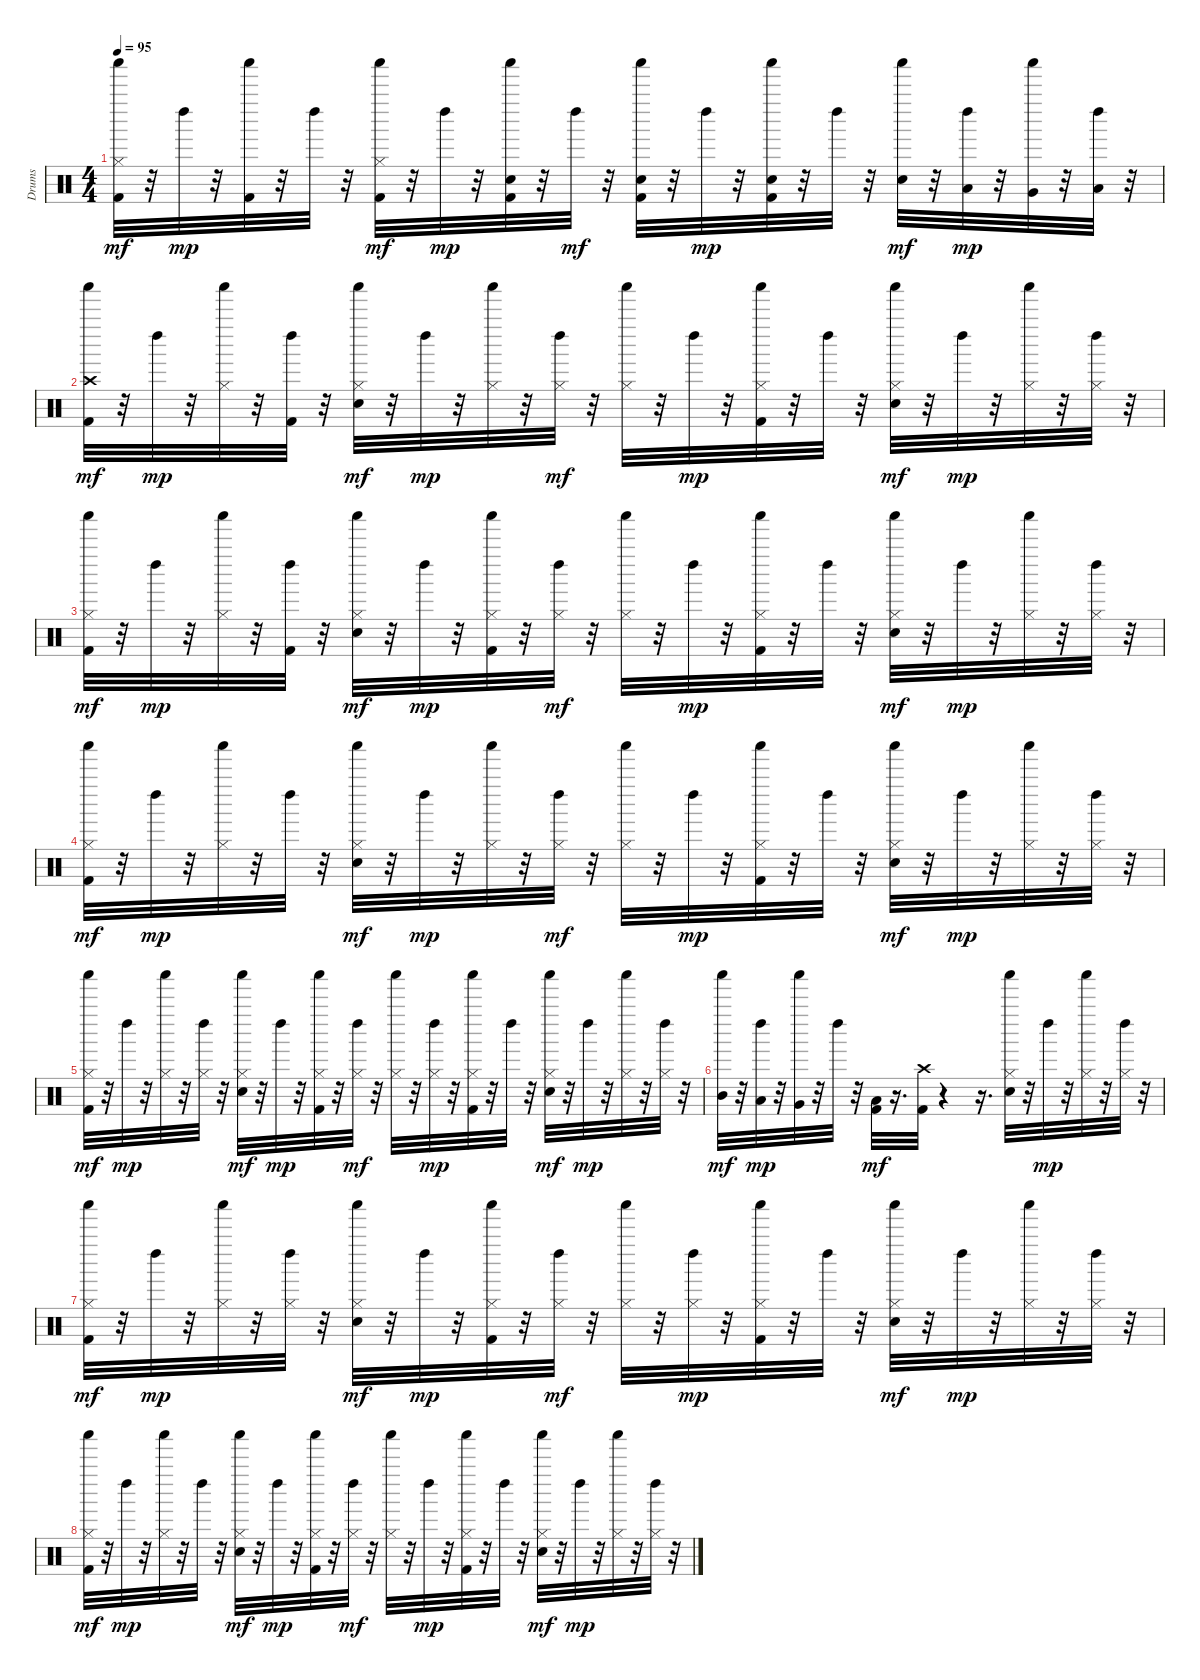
\track ("Drums" "Drums") {instrument percussion}
\staff {score}
\articulation defaults
\ts (4 4)
\tempo 95
\clef neutral
\ks c
("Kick (hit) 2" "Hi-Hat (closed)" "Shaker (hit)").32{dy mf} r.32 "Left Maraca (hit)".32{dy mp} r.32 ("Kick (hit) 2" "Shaker (hit)").32 r.32 "Left Maraca (hit)".32 r.32 ("Kick (hit) 2" "Hi-Hat (closed)" "Shaker (hit)").32{dy mf} r.32 "Left Maraca (hit)".32{dy mp} r.32 ("Kick (hit) 2" "Electric Snare (hit)" "Shaker (hit)").32 r.32 "Left Maraca (hit)".32{dy mf} r.32 ("Kick (hit) 2" "Electric Snare (hit)" "Shaker (hit)").32 r.32 "Left Maraca (hit)".32{dy mp} r.32 ("Kick (hit) 2" "Electric Snare (hit)" "Shaker (hit)").32 r.32 "Left Maraca (hit)".32 r.32 ("Electric Snare (hit)" "Shaker (hit)").32{dy mf} r.32 ("Low Tom (hit)" "Left Maraca (hit)").32{dy mp} r.32 ("Very Low Tom (hit)" "Shaker (hit)").32 r.32 ("Low Floor Tom (hit)" "Left Maraca (hit)").32 r.32 |
("Kick (hit) 2" "Crash high (hit)" "Shaker (hit)").32{dy mf} r.32 "Left Maraca (hit)".32{dy mp} r.32 ("Hi-Hat (closed)" "Shaker (hit)").32 r.32 ("Kick (hit) 2" "Left Maraca (hit)").32 r.32 ("Electric Snare (hit)" "Hi-Hat (closed)" "Shaker (hit)").32{dy mf} r.32 "Left Maraca (hit)".32{dy mp} r.32 ("Hi-Hat (closed)" "Shaker (hit)").32 r.32 ("Hi-Hat (closed)" "Left Maraca (hit)").32{dy mf} r.32 ("Hi-Hat (closed)" "Shaker (hit)").32 r.32 "Left Maraca (hit)".32{dy mp} r.32 ("Kick (hit) 2" "Hi-Hat (closed)" "Shaker (hit)").32 r.32 "Left Maraca (hit)".32 r.32 ("Electric Snare (hit)" "Hi-Hat (closed)" "Shaker (hit)").32{dy mf} r.32 "Left Maraca (hit)".32{dy mp} r.32 ("Hi-Hat (closed)" "Shaker (hit)").32 r.32 ("Hi-Hat (closed)" "Left Maraca (hit)").32 r.32 |
("Kick (hit) 2" "Hi-Hat (closed)" "Shaker (hit)").32{dy mf} r.32 "Left Maraca (hit)".32{dy mp} r.32 ("Hi-Hat (closed)" "Shaker (hit)").32 r.32 ("Kick (hit) 2" "Left Maraca (hit)").32 r.32 ("Electric Snare (hit)" "Hi-Hat (closed)" "Shaker (hit)").32{dy mf} r.32 "Left Maraca (hit)".32{dy mp} r.32 ("Kick (hit) 2" "Hi-Hat (closed)" "Shaker (hit)").32 r.32 ("Hi-Hat (closed)" "Left Maraca (hit)").32{dy mf} r.32 ("Hi-Hat (closed)" "Shaker (hit)").32 r.32 "Left Maraca (hit)".32{dy mp} r.32 ("Kick (hit) 2" "Hi-Hat (closed)" "Shaker (hit)").32 r.32 "Left Maraca (hit)".32 r.32 ("Electric Snare (hit)" "Hi-Hat (closed)" "Shaker (hit)").32{dy mf} r.32 "Left Maraca (hit)".32{dy mp} r.32 ("Hi-Hat (closed)" "Shaker (hit)").32 r.32 ("Hi-Hat (closed)" "Left Maraca (hit)").32 r.32 |
("Kick (hit) 2" "Hi-Hat (closed)" "Shaker (hit)").32{dy mf} r.32 "Left Maraca (hit)".32{dy mp} r.32 ("Hi-Hat (closed)" "Shaker (hit)").32 r.32 "Left Maraca (hit)".32 r.32 ("Electric Snare (hit)" "Hi-Hat (closed)" "Shaker (hit)").32{dy mf} r.32 "Left Maraca (hit)".32{dy mp} r.32 ("Hi-Hat (closed)" "Shaker (hit)").32 r.32 ("Hi-Hat (closed)" "Left Maraca (hit)").32{dy mf} r.32 ("Hi-Hat (closed)" "Shaker (hit)").32 r.32 "Left Maraca (hit)".32{dy mp} r.32 ("Kick (hit) 2" "Hi-Hat (closed)" "Shaker (hit)").32 r.32 "Left Maraca (hit)".32 r.32 ("Electric Snare (hit)" "Hi-Hat (closed)" "Shaker (hit)").32{dy mf} r.32 "Left Maraca (hit)".32{dy mp} r.32 ("Hi-Hat (closed)" "Shaker (hit)").32 r.32 ("Hi-Hat (closed)" "Left Maraca (hit)").32 r.32 |
("Kick (hit) 2" "Hi-Hat (closed)" "Shaker (hit)").32{dy mf} r.32 "Left Maraca (hit)".32{dy mp} r.32 ("Hi-Hat (closed)" "Shaker (hit)").32 r.32 ("Hi-Hat (closed)" "Left Maraca (hit)").32 r.32 ("Electric Snare (hit)" "Hi-Hat (closed)" "Shaker (hit)").32{dy mf} r.32 "Left Maraca (hit)".32{dy mp} r.32 ("Kick (hit) 2" "Hi-Hat (closed)" "Shaker (hit)").32 r.32 ("Hi-Hat (closed)" "Left Maraca (hit)").32{dy mf} r.32 ("Hi-Hat (closed)" "Shaker (hit)").32 r.32 ("Hi-Hat (closed)" "Left Maraca (hit)").32{dy mp} r.32 ("Kick (hit) 2" "Hi-Hat (closed)" "Shaker (hit)").32 r.32 "Left Maraca (hit)".32 r.32 ("Electric Snare (hit)" "Hi-Hat (closed)" "Shaker (hit)").32{dy mf} r.32 "Left Maraca (hit)".32{dy mp} r.32 ("Hi-Hat (closed)" "Shaker (hit)").32 r.32 ("Hi-Hat (closed)" "Left Maraca (hit)").32 r.32 |
("Mid Tom (hit)" "Shaker (hit)").32{dy mf} r.32 ("Low Tom (hit)" "Left Maraca (hit)").32{dy mp} r.32 ("Very Low Tom (hit)" "Shaker (hit)").32 r.32 "Left Maraca (hit)".32 r.32 ("Kick (hit) 2" "Low Floor Tom (hit)").32{dy mf} r.16{d} ("Kick (hit) 2" "Crash high (hit)").32 r.4 r.16{d} ("Electric Snare (hit)" "Hi-Hat (closed)" "Shaker (hit)").32 r.32 "Left Maraca (hit)".32{dy mp} r.32 ("Hi-Hat (closed)" "Shaker (hit)").32 r.32 ("Hi-Hat (closed)" "Left Maraca (hit)").32 r.32 |
("Kick (hit) 2" "Hi-Hat (closed)" "Shaker (hit)").32{dy mf} r.32 "Left Maraca (hit)".32{dy mp} r.32 ("Hi-Hat (closed)" "Shaker (hit)").32 r.32 ("Hi-Hat (closed)" "Left Maraca (hit)").32 r.32 ("Electric Snare (hit)" "Hi-Hat (closed)" "Shaker (hit)").32{dy mf} r.32 "Left Maraca (hit)".32{dy mp} r.32 ("Kick (hit) 2" "Hi-Hat (closed)" "Shaker (hit)").32 r.32 ("Hi-Hat (closed)" "Left Maraca (hit)").32{dy mf} r.32 ("Hi-Hat (closed)" "Shaker (hit)").32 r.32 ("Hi-Hat (closed)" "Left Maraca (hit)").32{dy mp} r.32 ("Kick (hit) 2" "Hi-Hat (closed)" "Shaker (hit)").32 r.32 "Left Maraca (hit)".32 r.32 ("Electric Snare (hit)" "Hi-Hat (closed)" "Shaker (hit)").32{dy mf} r.32 "Left Maraca (hit)".32{dy mp} r.32 ("Hi-Hat (closed)" "Shaker (hit)").32 r.32 ("Hi-Hat (closed)" "Left Maraca (hit)").32 r.32 |
("Kick (hit) 2" "Hi-Hat (closed)" "Shaker (hit)").32{dy mf} r.32 "Left Maraca (hit)".32{dy mp} r.32 ("Hi-Hat (closed)" "Shaker (hit)").32 r.32 "Left Maraca (hit)".32 r.32 ("Electric Snare (hit)" "Hi-Hat (closed)" "Shaker (hit)").32{dy mf} r.32 "Left Maraca (hit)".32{dy mp} r.32 ("Kick (hit) 2" "Hi-Hat (closed)" "Shaker (hit)").32 r.32 ("Hi-Hat (closed)" "Left Maraca (hit)").32{dy mf} r.32 ("Hi-Hat (closed)" "Shaker (hit)").32 r.32 "Left Maraca (hit)".32{dy mp} r.32 ("Kick (hit) 2" "Hi-Hat (closed)" "Shaker (hit)").32 r.32 "Left Maraca (hit)".32 r.32 ("Electric Snare (hit)" "Hi-Hat (closed)" "Shaker (hit)").32{dy mf} r.32 "Left Maraca (hit)".32{dy mp} r.32 ("Hi-Hat (closed)" "Shaker (hit)").32 r.32 ("Hi-Hat (closed)" "Left Maraca (hit)").32 r.32
